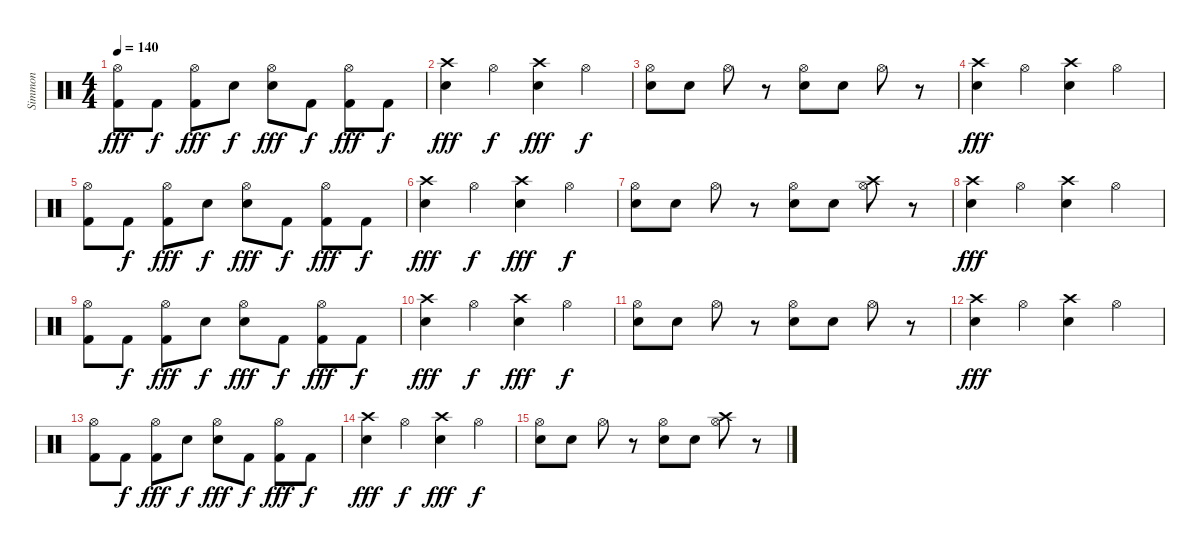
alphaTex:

\track ("Simmon" "Simmon") {instrument percussion}
\staff {score}
\articulation defaults
\ts (4 4)
\tempo 140
\clef neutral
\ks c
("Kick (hit) 2" "Hi-Hat (open)").8{dy fff} "Kick (hit) 2".8{dy f} ("Kick (hit) 2" "Hi-Hat (open)").8{dy fff} "Electric Snare (hit)".8{dy f} ("Electric Snare (hit)" "Hi-Hat (open)").8{dy fff} "Kick (hit) 2".8{dy f} ("Kick (hit) 2" "Hi-Hat (open)").8{dy fff} "Kick (hit) 2".8{dy f} |
("Crash high (hit)" "Electric Snare (hit)").4{dy fff} "Hi-Hat (open)".4{dy f} ("Crash high (hit)" "Electric Snare (hit)").4{dy fff} "Hi-Hat (open)".4{dy f} |
("Electric Snare (hit)" "Hi-Hat (open)").8 "Electric Snare (hit)".8 "Hi-Hat (open)".8 r.8 ("Electric Snare (hit)" "Hi-Hat (open)").8 "Electric Snare (hit)".8 "Hi-Hat (open)".8 r.8 |
("Crash high (hit)" "Electric Snare (hit)").4{dy fff} "Hi-Hat (open)".4 ("Crash high (hit)" "Electric Snare (hit)").4 "Hi-Hat (open)".4 |
("Kick (hit) 2" "Hi-Hat (open)").8 "Kick (hit) 2".8{dy f} ("Kick (hit) 2" "Hi-Hat (open)").8{dy fff} "Electric Snare (hit)".8{dy f} ("Electric Snare (hit)" "Hi-Hat (open)").8{dy fff} "Kick (hit) 2".8{dy f} ("Kick (hit) 2" "Hi-Hat (open)").8{dy fff} "Kick (hit) 2".8{dy f} |
("Crash high (hit)" "Electric Snare (hit)").4{dy fff} "Hi-Hat (open)".4{dy f} ("Crash high (hit)" "Electric Snare (hit)").4{dy fff} "Hi-Hat (open)".4{dy f} |
("Electric Snare (hit)" "Hi-Hat (open)").8 "Electric Snare (hit)".8 "Hi-Hat (open)".8 r.8 ("Electric Snare (hit)" "Hi-Hat (open)").8 "Electric Snare (hit)".8 ("Crash high (hit)" "Hi-Hat (open)").8 r.8 |
("Crash high (hit)" "Electric Snare (hit)").4{dy fff} "Hi-Hat (open)".4 ("Crash high (hit)" "Electric Snare (hit)").4 "Hi-Hat (open)".4 |
("Kick (hit) 2" "Hi-Hat (open)").8 "Kick (hit) 2".8{dy f} ("Kick (hit) 2" "Hi-Hat (open)").8{dy fff} "Electric Snare (hit)".8{dy f} ("Electric Snare (hit)" "Hi-Hat (open)").8{dy fff} "Kick (hit) 2".8{dy f} ("Kick (hit) 2" "Hi-Hat (open)").8{dy fff} "Kick (hit) 2".8{dy f} |
("Crash high (hit)" "Electric Snare (hit)").4{dy fff} "Hi-Hat (open)".4{dy f} ("Crash high (hit)" "Electric Snare (hit)").4{dy fff} "Hi-Hat (open)".4{dy f} |
("Electric Snare (hit)" "Hi-Hat (open)").8 "Electric Snare (hit)".8 "Hi-Hat (open)".8 r.8 ("Electric Snare (hit)" "Hi-Hat (open)").8 "Electric Snare (hit)".8 "Hi-Hat (open)".8 r.8 |
("Crash high (hit)" "Electric Snare (hit)").4{dy fff} "Hi-Hat (open)".4 ("Crash high (hit)" "Electric Snare (hit)").4 "Hi-Hat (open)".4 |
("Kick (hit) 2" "Hi-Hat (open)").8 "Kick (hit) 2".8{dy f} ("Kick (hit) 2" "Hi-Hat (open)").8{dy fff} "Electric Snare (hit)".8{dy f} ("Electric Snare (hit)" "Hi-Hat (open)").8{dy fff} "Kick (hit) 2".8{dy f} ("Kick (hit) 2" "Hi-Hat (open)").8{dy fff} "Kick (hit) 2".8{dy f} |
("Crash high (hit)" "Electric Snare (hit)").4{dy fff} "Hi-Hat (open)".4{dy f} ("Crash high (hit)" "Electric Snare (hit)").4{dy fff} "Hi-Hat (open)".4{dy f} |
("Electric Snare (hit)" "Hi-Hat (open)").8 "Electric Snare (hit)".8 "Hi-Hat (open)".8 r.8 ("Electric Snare (hit)" "Hi-Hat (open)").8 "Electric Snare (hit)".8 ("Crash high (hit)" "Hi-Hat (open)").8 r.8
